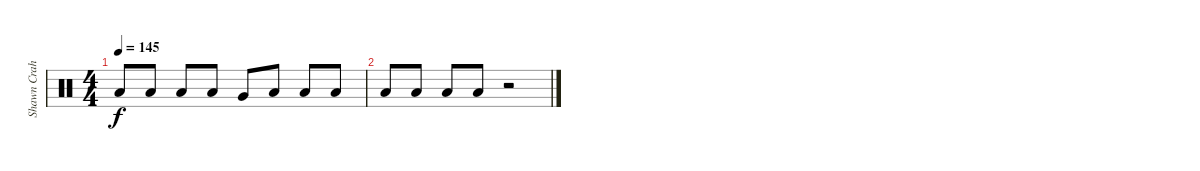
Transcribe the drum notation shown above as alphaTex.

\track ("Shawn Crahan" "Shawn Crah") {instrument percussion}
\staff {score}
\articulation defaults
\ts (4 4)
\tempo 145
\clef neutral
\ks c "Low Floor Tom (hit)".8{dy f} "Low Floor Tom (hit)".8 "Low Floor Tom (hit)".8 "Low Floor Tom (hit)".8 "Very Low Tom (hit)".8 "Low Floor Tom (hit)".8 "Low Floor Tom (hit)".8 "Low Floor Tom (hit)".8
|
"Low Floor Tom (hit)".8 "Low Floor Tom (hit)".8 "Low Floor Tom (hit)".8 "Low Floor Tom (hit)".8 r.2
